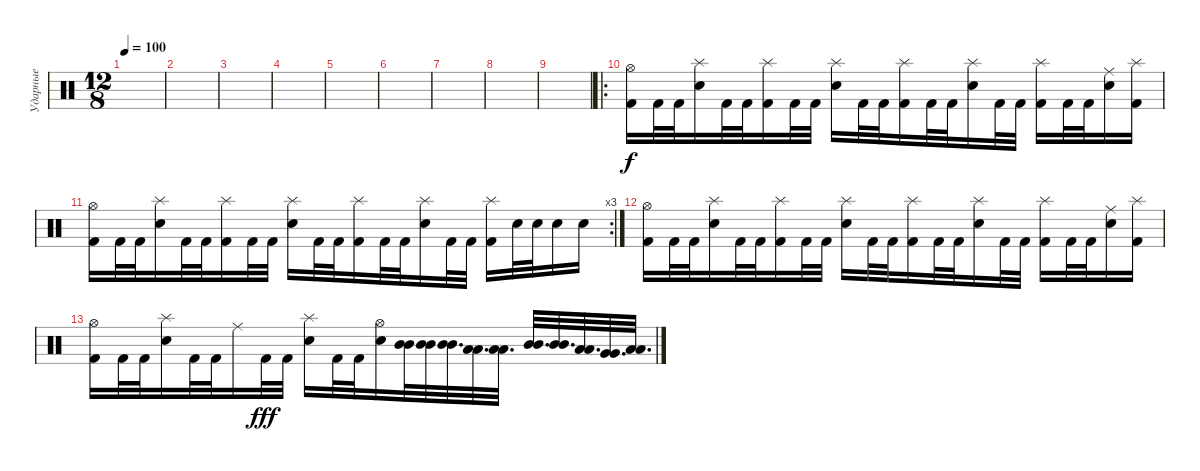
\track ("Ударные" "Ударные") {instrument percussion}
\staff {score}
\articulation defaults
\ts (12 8)
\tempo 100
\clef neutral
\ks c
|
|
|
|
|
|
|
|
|
\ro
("Hi-Hat (open)" "Kick (hit) 2").16 "Kick (hit) 2".32 "Kick (hit) 2".32 ("Splash (hit)" "Electric Snare (hit)").16 "Kick (hit) 2".32 "Kick (hit) 2".32 ("Splash (hit)" "Kick (hit) 2").16 "Kick (hit) 2".32 "Kick (hit) 2".32 ("Splash (hit)" "Electric Snare (hit)").16 "Kick (hit) 2".32 "Kick (hit) 2".32 ("Splash (hit)" "Kick (hit) 2").16 "Kick (hit) 2".32 "Kick (hit) 2".32 ("Splash (hit)" "Electric Snare (hit)").16 "Kick (hit) 2".32 "Kick (hit) 2".32 ("Splash (hit)" "Kick (hit) 2").16 "Kick (hit) 2".32 "Kick (hit) 2".32 ("Ride (middle)" "Electric Snare (hit)").16 ("Splash (hit)" "Kick (hit) 2").16 |
\rc 3
("Hi-Hat (open)" "Kick (hit) 2").16 "Kick (hit) 2".32 "Kick (hit) 2".32 ("Splash (hit)" "Electric Snare (hit)").16 "Kick (hit) 2".32 "Kick (hit) 2".32 ("Splash (hit)" "Kick (hit) 2").16 "Kick (hit) 2".32 "Kick (hit) 2".32 ("Splash (hit)" "Electric Snare (hit)").16 "Kick (hit) 2".32 "Kick (hit) 2".32 ("Splash (hit)" "Kick (hit) 2").16 "Kick (hit) 2".32 "Kick (hit) 2".32 ("Splash (hit)" "Electric Snare (hit)").16 "Kick (hit) 2".32 "Kick (hit) 2".32 ("Splash (hit)" "Kick (hit) 2").16 "Electric Snare (hit)".32 "Electric Snare (hit)".32 "Electric Snare (hit)".16 "Electric Snare (hit)".16 |
("Hi-Hat (open)" "Kick (hit) 2").16 "Kick (hit) 2".32 "Kick (hit) 2".32 ("Splash (hit)" "Electric Snare (hit)").16 "Kick (hit) 2".32 "Kick (hit) 2".32 ("Splash (hit)" "Kick (hit) 2").16 "Kick (hit) 2".32 "Kick (hit) 2".32 ("Splash (hit)" "Electric Snare (hit)").16 "Kick (hit) 2".32 "Kick (hit) 2".32 ("Splash (hit)" "Kick (hit) 2").16 "Kick (hit) 2".32 "Kick (hit) 2".32 ("Splash (hit)" "Electric Snare (hit)").16 "Kick (hit) 2".32 "Kick (hit) 2".32 ("Splash (hit)" "Kick (hit) 2").16 "Kick (hit) 2".32 "Kick (hit) 2".32 ("Ride (middle)" "Electric Snare (hit)").16 ("Splash (hit)" "Kick (hit) 2").16 |
("Hi-Hat (open)" "Kick (hit) 2").16 "Kick (hit) 2".32 "Kick (hit) 2".32 ("Splash (hit)" "Electric Snare (hit)").16 "Kick (hit) 2".32 "Kick (hit) 2".32 "Ride (middle)".16{dy f} "Kick (hit) 2".32{dy fff} "Kick (hit) 2".32 ("Splash (hit)" "Electric Snare (hit)").16 "Kick (hit) 2".32 "Kick (hit) 2".32 ("Hi-Hat (open)" "Electric Snare (hit)").16 ("Mid Tom (hit)" "Mid Tom (hit)").32 ("Mid Tom (hit)" "Mid Tom (hit)").32 ("Mid Tom (hit)" "Mid Tom (hit)").32{d} ("Low Tom (hit)" "Low Tom (hit)").32{d} ("Low Tom (hit)" "Low Tom (hit)").32{d} ("Mid Tom (hit)" "Mid Tom (hit)").32{d} ("Mid Tom (hit)" "Mid Tom (hit)").32{d} ("Low Tom (hit)" "Low Tom (hit)").32{d} ("Very Low Tom (hit)" "Very Low Tom (hit)").32{d} ("Low Floor Tom (hit)" "Low Floor Tom (hit)").32{d}
